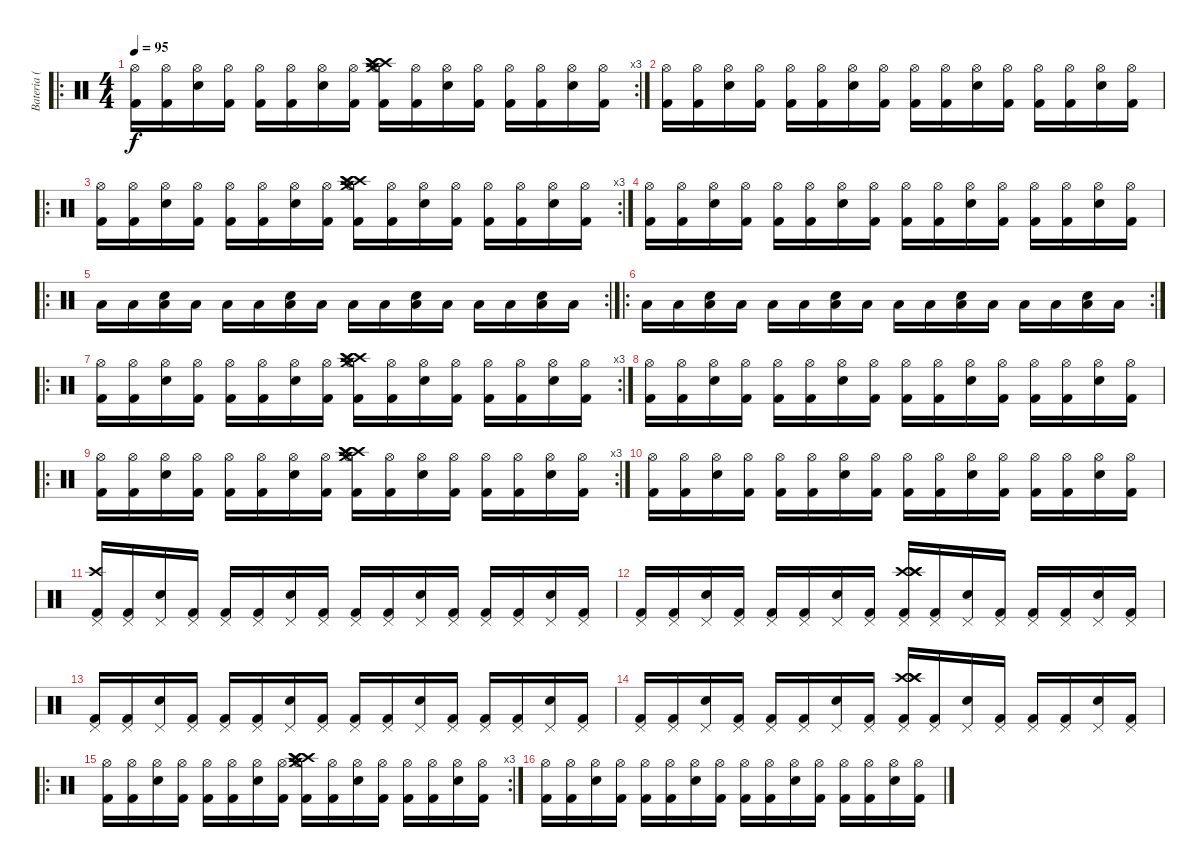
\track ("Bateria ( Drums )" "Bateria ( ") {instrument percussion}
\staff {score}
\articulation defaults
\ro
\rc 3
\ts (4 4)
\tempo 95
\clef neutral
\ks c
("Hi-Hat (open)" "Kick (hit) 2").16{dy f} ("Hi-Hat (open)" "Kick (hit) 2").16 ("Hi-Hat (open)" "Snare (hit) 2").16 ("Hi-Hat (open)" "Kick (hit) 2").16 ("Hi-Hat (open)" "Kick (hit) 2").16 ("Hi-Hat (open)" "Kick (hit) 2").16 ("Hi-Hat (open)" "Snare (hit) 2").16 ("Hi-Hat (open)" "Kick (hit) 2").16 ("Hi-Hat (open)" "Kick (hit) 2" "Crash high (hit)" "Crash high (hit)" "Crash high (hit)" "Crash medium (hit)").16 ("Hi-Hat (open)" "Kick (hit) 2").16 ("Hi-Hat (open)" "Snare (hit) 2").16 ("Hi-Hat (open)" "Kick (hit) 2").16 ("Hi-Hat (open)" "Kick (hit) 2").16 ("Hi-Hat (open)" "Kick (hit) 2").16 ("Hi-Hat (open)" "Snare (hit) 2").16 ("Hi-Hat (open)" "Kick (hit) 2").16 |
("Hi-Hat (open)" "Kick (hit) 2").16 ("Hi-Hat (open)" "Kick (hit) 2").16 ("Hi-Hat (open)" "Snare (hit) 2").16 ("Hi-Hat (open)" "Kick (hit) 2").16 ("Hi-Hat (open)" "Kick (hit) 2").16 ("Hi-Hat (open)" "Kick (hit) 2").16 ("Hi-Hat (open)" "Snare (hit) 2").16 ("Hi-Hat (open)" "Kick (hit) 2").16 ("Hi-Hat (open)" "Kick (hit) 2").16 ("Hi-Hat (open)" "Kick (hit) 2").16 ("Hi-Hat (open)" "Snare (hit) 2").16 ("Hi-Hat (open)" "Kick (hit) 2").16 ("Hi-Hat (open)" "Kick (hit) 2").16 ("Hi-Hat (open)" "Kick (hit) 2").16 ("Hi-Hat (open)" "Snare (hit) 2").16 ("Hi-Hat (open)" "Kick (hit) 2").16 |
\ro
\rc 3
("Hi-Hat (open)" "Kick (hit) 2").16 ("Hi-Hat (open)" "Kick (hit) 2").16 ("Hi-Hat (open)" "Snare (hit) 2").16 ("Hi-Hat (open)" "Kick (hit) 2").16 ("Hi-Hat (open)" "Kick (hit) 2").16 ("Hi-Hat (open)" "Kick (hit) 2").16 ("Hi-Hat (open)" "Snare (hit) 2").16 ("Hi-Hat (open)" "Kick (hit) 2").16 ("Hi-Hat (open)" "Kick (hit) 2" "Crash high (hit)" "Crash high (hit)" "Crash high (hit)" "Crash medium (hit)").16 ("Hi-Hat (open)" "Kick (hit) 2").16 ("Hi-Hat (open)" "Snare (hit) 2").16 ("Hi-Hat (open)" "Kick (hit) 2").16 ("Hi-Hat (open)" "Kick (hit) 2").16 ("Hi-Hat (open)" "Kick (hit) 2").16 ("Hi-Hat (open)" "Snare (hit) 2").16 ("Hi-Hat (open)" "Kick (hit) 2").16 |
("Hi-Hat (open)" "Kick (hit) 2").16 ("Hi-Hat (open)" "Kick (hit) 2").16 ("Hi-Hat (open)" "Snare (hit) 2").16 ("Hi-Hat (open)" "Kick (hit) 2").16 ("Hi-Hat (open)" "Kick (hit) 2").16 ("Hi-Hat (open)" "Kick (hit) 2").16 ("Hi-Hat (open)" "Snare (hit) 2").16 ("Hi-Hat (open)" "Kick (hit) 2").16 ("Hi-Hat (open)" "Kick (hit) 2").16 ("Hi-Hat (open)" "Kick (hit) 2").16 ("Hi-Hat (open)" "Snare (hit) 2").16 ("Hi-Hat (open)" "Kick (hit) 2").16 ("Hi-Hat (open)" "Kick (hit) 2").16 ("Hi-Hat (open)" "Kick (hit) 2").16 ("Hi-Hat (open)" "Snare (hit) 2").16 ("Hi-Hat (open)" "Kick (hit) 2").16 |
\ro
\rc 2 "Low Floor Tom (hit)".16 "Low Floor Tom (hit)".16
("Low Floor Tom (hit)" "Snare (hit) 2").16 "Low Floor Tom (hit)".16 "Low Floor Tom (hit)".16 "Low Floor Tom (hit)".16 ("Low Floor Tom (hit)" "Snare (hit) 2").16 "Low Floor Tom (hit)".16 "Low Floor Tom (hit)".16 "Low Floor Tom (hit)".16 ("Low Floor Tom (hit)" "Snare (hit) 2").16 "Low Floor Tom (hit)".16 "Low Floor Tom (hit)".16 "Low Floor Tom (hit)".16 ("Low Floor Tom (hit)" "Snare (hit) 2").16 "Low Floor Tom (hit)".16 |
\ro
\rc 2 "Low Floor Tom (hit)".16 "Low Floor Tom (hit)".16
("Low Floor Tom (hit)" "Snare (hit) 2").16 "Low Floor Tom (hit)".16 "Low Floor Tom (hit)".16 "Low Floor Tom (hit)".16 ("Low Floor Tom (hit)" "Snare (hit) 2").16 "Low Floor Tom (hit)".16 "Low Floor Tom (hit)".16 "Low Floor Tom (hit)".16 ("Low Floor Tom (hit)" "Snare (hit) 2").16 "Low Floor Tom (hit)".16 "Low Floor Tom (hit)".16 "Low Floor Tom (hit)".16 ("Low Floor Tom (hit)" "Snare (hit) 2").16 "Low Floor Tom (hit)".16 |
\ro
\rc 3
("Hi-Hat (open)" "Kick (hit) 2").16 ("Hi-Hat (open)" "Kick (hit) 2").16 ("Hi-Hat (open)" "Snare (hit) 2").16 ("Hi-Hat (open)" "Kick (hit) 2").16 ("Hi-Hat (open)" "Kick (hit) 2").16 ("Hi-Hat (open)" "Kick (hit) 2").16 ("Hi-Hat (open)" "Snare (hit) 2").16 ("Hi-Hat (open)" "Kick (hit) 2").16 ("Hi-Hat (open)" "Kick (hit) 2" "Crash high (hit)" "Crash high (hit)" "Crash high (hit)" "Crash medium (hit)").16 ("Hi-Hat (open)" "Kick (hit) 2").16 ("Hi-Hat (open)" "Snare (hit) 2").16 ("Hi-Hat (open)" "Kick (hit) 2").16 ("Hi-Hat (open)" "Kick (hit) 2").16 ("Hi-Hat (open)" "Kick (hit) 2").16 ("Hi-Hat (open)" "Snare (hit) 2").16 ("Hi-Hat (open)" "Kick (hit) 2").16 |
("Hi-Hat (open)" "Kick (hit) 2").16 ("Hi-Hat (open)" "Kick (hit) 2").16 ("Hi-Hat (open)" "Snare (hit) 2").16 ("Hi-Hat (open)" "Kick (hit) 2").16 ("Hi-Hat (open)" "Kick (hit) 2").16 ("Hi-Hat (open)" "Kick (hit) 2").16 ("Hi-Hat (open)" "Snare (hit) 2").16 ("Hi-Hat (open)" "Kick (hit) 2").16 ("Hi-Hat (open)" "Kick (hit) 2").16 ("Hi-Hat (open)" "Kick (hit) 2").16 ("Hi-Hat (open)" "Snare (hit) 2").16 ("Hi-Hat (open)" "Kick (hit) 2").16 ("Hi-Hat (open)" "Kick (hit) 2").16 ("Hi-Hat (open)" "Kick (hit) 2").16 ("Hi-Hat (open)" "Snare (hit) 2").16 ("Hi-Hat (open)" "Kick (hit) 2").16 |
\ro
\rc 3
("Hi-Hat (open)" "Kick (hit) 2").16 ("Hi-Hat (open)" "Kick (hit) 2").16 ("Hi-Hat (open)" "Snare (hit) 2").16 ("Hi-Hat (open)" "Kick (hit) 2").16 ("Hi-Hat (open)" "Kick (hit) 2").16 ("Hi-Hat (open)" "Kick (hit) 2").16 ("Hi-Hat (open)" "Snare (hit) 2").16 ("Hi-Hat (open)" "Kick (hit) 2").16 ("Hi-Hat (open)" "Kick (hit) 2" "Crash high (hit)" "Crash high (hit)" "Crash high (hit)" "Crash medium (hit)").16 ("Hi-Hat (open)" "Kick (hit) 2").16 ("Hi-Hat (open)" "Snare (hit) 2").16 ("Hi-Hat (open)" "Kick (hit) 2").16 ("Hi-Hat (open)" "Kick (hit) 2").16 ("Hi-Hat (open)" "Kick (hit) 2").16 ("Hi-Hat (open)" "Snare (hit) 2").16 ("Hi-Hat (open)" "Kick (hit) 2").16 |
("Hi-Hat (open)" "Kick (hit) 2").16 ("Hi-Hat (open)" "Kick (hit) 2").16 ("Hi-Hat (open)" "Snare (hit) 2").16 ("Hi-Hat (open)" "Kick (hit) 2").16 ("Hi-Hat (open)" "Kick (hit) 2").16 ("Hi-Hat (open)" "Kick (hit) 2").16 ("Hi-Hat (open)" "Snare (hit) 2").16 ("Hi-Hat (open)" "Kick (hit) 2").16 ("Hi-Hat (open)" "Kick (hit) 2").16 ("Hi-Hat (open)" "Kick (hit) 2").16 ("Hi-Hat (open)" "Snare (hit) 2").16 ("Hi-Hat (open)" "Kick (hit) 2").16 ("Hi-Hat (open)" "Kick (hit) 2").16 ("Hi-Hat (open)" "Kick (hit) 2").16 ("Hi-Hat (open)" "Snare (hit) 2").16 ("Hi-Hat (open)" "Kick (hit) 2").16 |
("Pedal Hi-Hat (hit)" "Kick (hit) 2" "Crash high (hit)").16 ("Pedal Hi-Hat (hit)" "Kick (hit) 2").16 ("Pedal Hi-Hat (hit)" "Snare (hit) 2").16 ("Pedal Hi-Hat (hit)" "Kick (hit) 2").16 ("Pedal Hi-Hat (hit)" "Kick (hit) 2").16 ("Pedal Hi-Hat (hit)" "Kick (hit) 2").16 ("Pedal Hi-Hat (hit)" "Snare (hit) 2").16 ("Pedal Hi-Hat (hit)" "Kick (hit) 2").16 ("Pedal Hi-Hat (hit)" "Kick (hit) 2").16 ("Pedal Hi-Hat (hit)" "Kick (hit) 2").16 ("Pedal Hi-Hat (hit)" "Snare (hit) 2").16 ("Pedal Hi-Hat (hit)" "Kick (hit) 2").16 ("Pedal Hi-Hat (hit)" "Kick (hit) 2").16 ("Pedal Hi-Hat (hit)" "Kick (hit) 2").16 ("Pedal Hi-Hat (hit)" "Snare (hit) 2").16 ("Pedal Hi-Hat (hit)" "Kick (hit) 2").16 |
("Pedal Hi-Hat (hit)" "Kick (hit) 2").16 ("Pedal Hi-Hat (hit)" "Kick (hit) 2").16 ("Pedal Hi-Hat (hit)" "Snare (hit) 2").16 ("Pedal Hi-Hat (hit)" "Kick (hit) 2").16 ("Pedal Hi-Hat (hit)" "Kick (hit) 2").16 ("Pedal Hi-Hat (hit)" "Kick (hit) 2").16 ("Pedal Hi-Hat (hit)" "Snare (hit) 2").16 ("Pedal Hi-Hat (hit)" "Kick (hit) 2").16 ("Pedal Hi-Hat (hit)" "Kick (hit) 2" "Crash high (hit)" "Crash high (hit)" "Crash high (hit)").16 ("Pedal Hi-Hat (hit)" "Kick (hit) 2").16 ("Pedal Hi-Hat (hit)" "Snare (hit) 2").16 ("Pedal Hi-Hat (hit)" "Kick (hit) 2").16 ("Pedal Hi-Hat (hit)" "Kick (hit) 2").16 ("Pedal Hi-Hat (hit)" "Kick (hit) 2").16 ("Pedal Hi-Hat (hit)" "Snare (hit) 2").16 ("Pedal Hi-Hat (hit)" "Kick (hit) 2").16 |
("Pedal Hi-Hat (hit)" "Kick (hit) 2").16 ("Pedal Hi-Hat (hit)" "Kick (hit) 2").16 ("Pedal Hi-Hat (hit)" "Snare (hit) 2").16 ("Pedal Hi-Hat (hit)" "Kick (hit) 2").16 ("Pedal Hi-Hat (hit)" "Kick (hit) 2").16 ("Pedal Hi-Hat (hit)" "Kick (hit) 2").16 ("Pedal Hi-Hat (hit)" "Snare (hit) 2").16 ("Pedal Hi-Hat (hit)" "Kick (hit) 2").16 ("Pedal Hi-Hat (hit)" "Kick (hit) 2").16 ("Pedal Hi-Hat (hit)" "Kick (hit) 2").16 ("Pedal Hi-Hat (hit)" "Snare (hit) 2").16 ("Pedal Hi-Hat (hit)" "Kick (hit) 2").16 ("Pedal Hi-Hat (hit)" "Kick (hit) 2").16 ("Pedal Hi-Hat (hit)" "Kick (hit) 2").16 ("Pedal Hi-Hat (hit)" "Snare (hit) 2").16 ("Pedal Hi-Hat (hit)" "Kick (hit) 2").16 |
("Pedal Hi-Hat (hit)" "Kick (hit) 2").16 ("Pedal Hi-Hat (hit)" "Kick (hit) 2").16 ("Pedal Hi-Hat (hit)" "Snare (hit) 2").16 ("Pedal Hi-Hat (hit)" "Kick (hit) 2").16 ("Pedal Hi-Hat (hit)" "Kick (hit) 2").16 ("Pedal Hi-Hat (hit)" "Kick (hit) 2").16 ("Pedal Hi-Hat (hit)" "Snare (hit) 2").16 ("Pedal Hi-Hat (hit)" "Kick (hit) 2").16 ("Pedal Hi-Hat (hit)" "Kick (hit) 2" "Crash high (hit)" "Crash high (hit)" "Crash high (hit)").16 ("Pedal Hi-Hat (hit)" "Kick (hit) 2").16 ("Pedal Hi-Hat (hit)" "Snare (hit) 2").16 ("Pedal Hi-Hat (hit)" "Kick (hit) 2").16 ("Pedal Hi-Hat (hit)" "Kick (hit) 2").16 ("Pedal Hi-Hat (hit)" "Kick (hit) 2").16 ("Pedal Hi-Hat (hit)" "Snare (hit) 2").16 ("Pedal Hi-Hat (hit)" "Kick (hit) 2").16 |
\ro
\rc 3
("Hi-Hat (open)" "Kick (hit) 2").16 ("Hi-Hat (open)" "Kick (hit) 2").16 ("Hi-Hat (open)" "Snare (hit) 2").16 ("Hi-Hat (open)" "Kick (hit) 2").16 ("Hi-Hat (open)" "Kick (hit) 2").16 ("Hi-Hat (open)" "Kick (hit) 2").16 ("Hi-Hat (open)" "Snare (hit) 2").16 ("Hi-Hat (open)" "Kick (hit) 2").16 ("Hi-Hat (open)" "Kick (hit) 2" "Crash high (hit)" "Crash high (hit)" "Crash high (hit)" "Crash medium (hit)").16 ("Hi-Hat (open)" "Kick (hit) 2").16 ("Hi-Hat (open)" "Snare (hit) 2").16 ("Hi-Hat (open)" "Kick (hit) 2").16 ("Hi-Hat (open)" "Kick (hit) 2").16 ("Hi-Hat (open)" "Kick (hit) 2").16 ("Hi-Hat (open)" "Snare (hit) 2").16 ("Hi-Hat (open)" "Kick (hit) 2").16 |
("Hi-Hat (open)" "Kick (hit) 2").16 ("Hi-Hat (open)" "Kick (hit) 2").16 ("Hi-Hat (open)" "Snare (hit) 2").16 ("Hi-Hat (open)" "Kick (hit) 2").16 ("Hi-Hat (open)" "Kick (hit) 2").16 ("Hi-Hat (open)" "Kick (hit) 2").16 ("Hi-Hat (open)" "Snare (hit) 2").16 ("Hi-Hat (open)" "Kick (hit) 2").16 ("Hi-Hat (open)" "Kick (hit) 2").16 ("Hi-Hat (open)" "Kick (hit) 2").16 ("Hi-Hat (open)" "Snare (hit) 2").16 ("Hi-Hat (open)" "Kick (hit) 2").16 ("Hi-Hat (open)" "Kick (hit) 2").16 ("Hi-Hat (open)" "Kick (hit) 2").16 ("Hi-Hat (open)" "Snare (hit) 2").16 ("Hi-Hat (open)" "Kick (hit) 2").16
